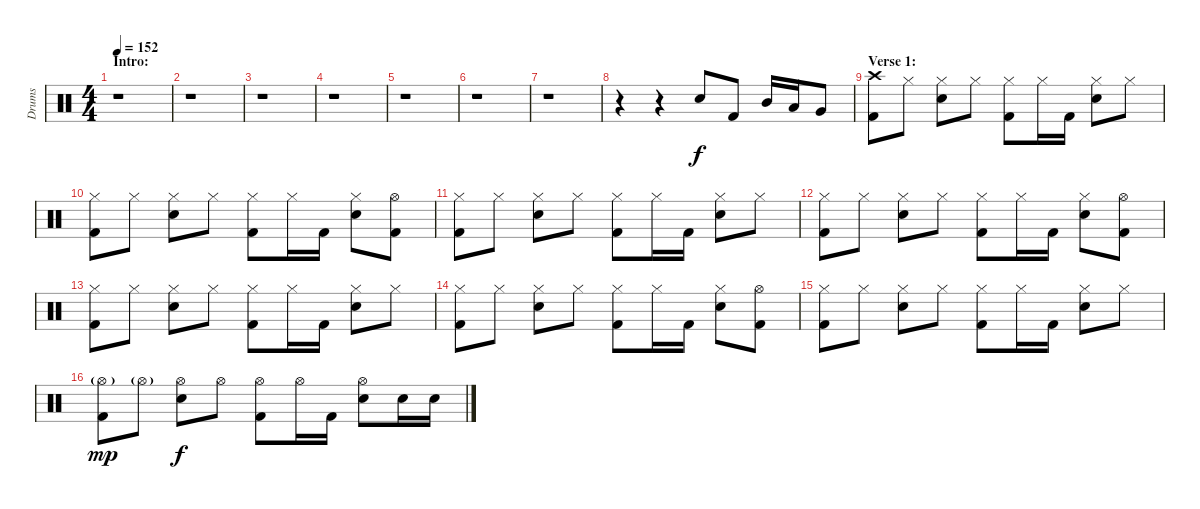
\track ("Drums" "Drums") {instrument percussion}
\staff {score}
\articulation defaults
\ts (4 4)
\section ("" "Intro:")
\tempo 152
\tempo 72
\tempo 152
\clef neutral
\ks c
r.1{dy f} |
r.1 |
r.1 |
r.1 |
r.1 |
r.1 |
r.1 |
r.4 r.4 "Electric Snare (hit)".8 "Kick (hit) 2".8 "Mid Tom (hit)".16 "Low Tom (hit)".16 "Very Low Tom (hit)".8 |
\section ("" "Verse 1:")
("Crash high (hit)" "Kick (hit) 2").8 "Hi-Hat (closed)".8 ("Hi-Hat (closed)" "Electric Snare (hit)").8 "Hi-Hat (closed)".8 ("Hi-Hat (closed)" "Kick (hit) 2").8 "Hi-Hat (closed)".16 "Kick (hit) 2".16 ("Hi-Hat (closed)" "Electric Snare (hit)").8 "Hi-Hat (closed)".8 |
("Hi-Hat (closed)" "Kick (hit) 2").8 "Hi-Hat (closed)".8 ("Hi-Hat (closed)" "Electric Snare (hit)").8 "Hi-Hat (closed)".8 ("Hi-Hat (closed)" "Kick (hit) 2").8 "Hi-Hat (closed)".16 "Kick (hit) 2".16 ("Hi-Hat (closed)" "Electric Snare (hit)").8 ("Hi-Hat (open)" "Kick (hit) 2").8 |
("Hi-Hat (closed)" "Kick (hit) 2").8 "Hi-Hat (closed)".8 ("Hi-Hat (closed)" "Electric Snare (hit)").8 "Hi-Hat (closed)".8 ("Hi-Hat (closed)" "Kick (hit) 2").8 "Hi-Hat (closed)".16 "Kick (hit) 2".16 ("Hi-Hat (closed)" "Electric Snare (hit)").8 "Hi-Hat (closed)".8 |
("Hi-Hat (closed)" "Kick (hit) 2").8 "Hi-Hat (closed)".8 ("Hi-Hat (closed)" "Electric Snare (hit)").8 "Hi-Hat (closed)".8 ("Hi-Hat (closed)" "Kick (hit) 2").8 "Hi-Hat (closed)".16 "Kick (hit) 2".16 ("Hi-Hat (closed)" "Electric Snare (hit)").8 ("Hi-Hat (open)" "Kick (hit) 2").8 |
("Hi-Hat (closed)" "Kick (hit) 2").8 "Hi-Hat (closed)".8 ("Hi-Hat (closed)" "Electric Snare (hit)").8 "Hi-Hat (closed)".8 ("Hi-Hat (closed)" "Kick (hit) 2").8 "Hi-Hat (closed)".16 "Kick (hit) 2".16 ("Hi-Hat (closed)" "Electric Snare (hit)").8 "Hi-Hat (closed)".8 |
("Hi-Hat (closed)" "Kick (hit) 2").8 "Hi-Hat (closed)".8 ("Hi-Hat (closed)" "Electric Snare (hit)").8 "Hi-Hat (closed)".8 ("Hi-Hat (closed)" "Kick (hit) 2").8 "Hi-Hat (closed)".16 "Kick (hit) 2".16 ("Hi-Hat (closed)" "Electric Snare (hit)").8 ("Hi-Hat (open)" "Kick (hit) 2").8 |
("Hi-Hat (closed)" "Kick (hit) 2").8 "Hi-Hat (closed)".8 ("Hi-Hat (closed)" "Electric Snare (hit)").8 "Hi-Hat (closed)".8 ("Hi-Hat (closed)" "Kick (hit) 2").8 "Hi-Hat (closed)".16 "Kick (hit) 2".16 ("Hi-Hat (closed)" "Electric Snare (hit)").8 "Hi-Hat (closed)".8 |
("Hi-Hat (open)"{g} "Kick (hit) 2").8{dy mp} "Hi-Hat (open)"{g}.8 ("Hi-Hat (open)" "Electric Snare (hit)").8{dy f} "Hi-Hat (open)".8 ("Hi-Hat (open)" "Kick (hit) 2").8 "Hi-Hat (open)".16 "Kick (hit) 2".16 ("Hi-Hat (open)" "Electric Snare (hit)").8 "Electric Snare (hit)".16 "Electric Snare (hit)".16
